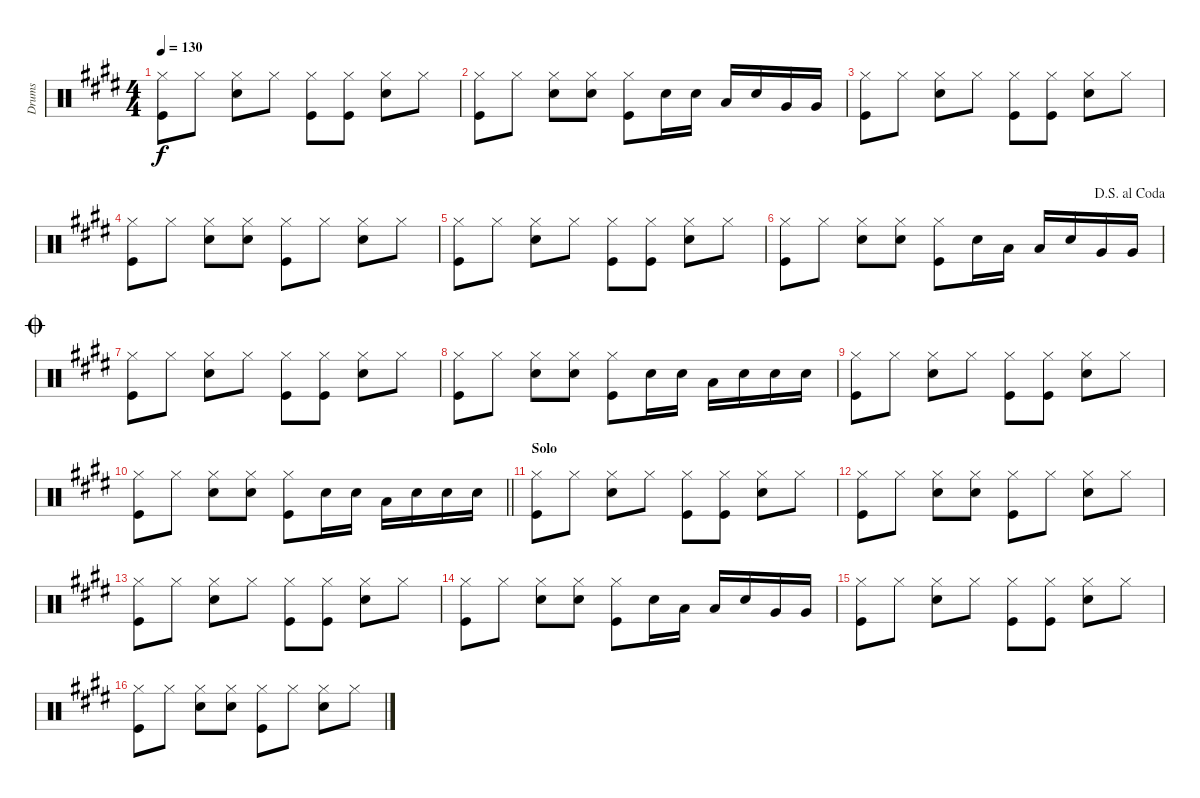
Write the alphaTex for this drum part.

\track ("Drums" "Drums") {instrument percussion}
\staff {score}
\articulation defaults
\ts (4 4)
\tempo 130
\clef neutral
\ks e
("Hi-Hat (closed)" "Kick (hit)").8{dy f} "Hi-Hat (closed)".8 ("Hi-Hat (closed)" "Snare (hit) 2").8 "Hi-Hat (closed)".8 ("Hi-Hat (closed)" "Kick (hit)").8 ("Hi-Hat (closed)" "Kick (hit)").8 ("Hi-Hat (closed)" "Snare (hit) 2").8 "Hi-Hat (closed)".8 |
("Hi-Hat (closed)" "Kick (hit)").8 "Hi-Hat (closed)".8 ("Hi-Hat (closed)" "Snare (hit) 2").8 ("Hi-Hat (closed)" "Snare (hit) 2").8 ("Hi-Hat (closed)" "Kick (hit)").8 "Snare (hit) 2".16 "Snare (hit) 2".16 "Low Tom (hit)".16 "Snare (hit) 2".16 "Very Low Tom (hit)".16 "Very Low Tom (hit)".16 |
("Hi-Hat (closed)" "Kick (hit)").8 "Hi-Hat (closed)".8 ("Hi-Hat (closed)" "Snare (hit) 2").8 "Hi-Hat (closed)".8 ("Hi-Hat (closed)" "Kick (hit)").8 ("Hi-Hat (closed)" "Kick (hit)").8 ("Hi-Hat (closed)" "Snare (hit) 2").8 "Hi-Hat (closed)".8 |
("Hi-Hat (closed)" "Kick (hit)").8 "Hi-Hat (closed)".8 ("Hi-Hat (closed)" "Snare (hit) 2").8 ("Hi-Hat (closed)" "Snare (hit) 2").8 ("Hi-Hat (closed)" "Kick (hit)").8 "Hi-Hat (closed)".8 ("Hi-Hat (closed)" "Snare (hit) 2").8 "Hi-Hat (closed)".8 |
("Hi-Hat (closed)" "Kick (hit)").8 "Hi-Hat (closed)".8 ("Hi-Hat (closed)" "Snare (hit) 2").8 "Hi-Hat (closed)".8 ("Hi-Hat (closed)" "Kick (hit)").8 ("Hi-Hat (closed)" "Kick (hit)").8 ("Hi-Hat (closed)" "Snare (hit) 2").8 "Hi-Hat (closed)".8 |
\jump dalsegnoalcoda
("Hi-Hat (closed)" "Kick (hit)").8 "Hi-Hat (closed)".8 ("Hi-Hat (closed)" "Snare (hit) 2").8 ("Hi-Hat (closed)" "Snare (hit) 2").8 ("Hi-Hat (closed)" "Kick (hit)").8 "Snare (hit) 2".16 "Low Tom (hit)".16 "Low Tom (hit)".16 "Snare (hit) 2".16 "Very Low Tom (hit)".16 "Very Low Tom (hit)".16 |
\jump coda
("Hi-Hat (closed)" "Kick (hit)").8 "Hi-Hat (closed)".8 ("Hi-Hat (closed)" "Snare (hit) 2").8 "Hi-Hat (closed)".8 ("Hi-Hat (closed)" "Kick (hit)").8 ("Hi-Hat (closed)" "Kick (hit)").8 ("Hi-Hat (closed)" "Snare (hit) 2").8 "Hi-Hat (closed)".8 |
("Hi-Hat (closed)" "Kick (hit)").8 "Hi-Hat (closed)".8 ("Hi-Hat (closed)" "Snare (hit) 2").8 ("Hi-Hat (closed)" "Snare (hit) 2").8 ("Hi-Hat (closed)" "Kick (hit)").8 "Snare (hit) 2".16 "Snare (hit) 2".16 "Low Tom (hit)".16 "Snare (hit) 2".16 "Snare (hit) 2".16 "Snare (hit) 2".16 |
("Hi-Hat (closed)" "Kick (hit)").8 "Hi-Hat (closed)".8 ("Hi-Hat (closed)" "Snare (hit) 2").8 "Hi-Hat (closed)".8 ("Hi-Hat (closed)" "Kick (hit)").8 ("Hi-Hat (closed)" "Kick (hit)").8 ("Hi-Hat (closed)" "Snare (hit) 2").8 "Hi-Hat (closed)".8 |
\barLineRight lightlight
("Hi-Hat (closed)" "Kick (hit)").8 "Hi-Hat (closed)".8 ("Hi-Hat (closed)" "Snare (hit) 2").8 ("Hi-Hat (closed)" "Snare (hit) 2").8 ("Hi-Hat (closed)" "Kick (hit)").8 "Snare (hit) 2".16 "Snare (hit) 2".16 "Low Tom (hit)".16 "Snare (hit) 2".16 "Snare (hit) 2".16 "Snare (hit) 2".16 |
\section ("" "Solo")
("Hi-Hat (closed)" "Kick (hit)").8 "Hi-Hat (closed)".8 ("Hi-Hat (closed)" "Snare (hit) 2").8 "Hi-Hat (closed)".8 ("Hi-Hat (closed)" "Kick (hit)").8 ("Hi-Hat (closed)" "Kick (hit)").8 ("Hi-Hat (closed)" "Snare (hit) 2").8 "Hi-Hat (closed)".8 |
("Hi-Hat (closed)" "Kick (hit)").8 "Hi-Hat (closed)".8 ("Hi-Hat (closed)" "Snare (hit) 2").8 ("Hi-Hat (closed)" "Snare (hit) 2").8 ("Hi-Hat (closed)" "Kick (hit)").8 "Hi-Hat (closed)".8 ("Hi-Hat (closed)" "Snare (hit) 2").8 "Hi-Hat (closed)".8 |
("Hi-Hat (closed)" "Kick (hit)").8 "Hi-Hat (closed)".8 ("Hi-Hat (closed)" "Snare (hit) 2").8 "Hi-Hat (closed)".8 ("Hi-Hat (closed)" "Kick (hit)").8 ("Hi-Hat (closed)" "Kick (hit)").8 ("Hi-Hat (closed)" "Snare (hit) 2").8 "Hi-Hat (closed)".8 |
("Hi-Hat (closed)" "Kick (hit)").8 "Hi-Hat (closed)".8 ("Hi-Hat (closed)" "Snare (hit) 2").8 ("Hi-Hat (closed)" "Snare (hit) 2").8 ("Hi-Hat (closed)" "Kick (hit)").8 "Snare (hit) 2".16 "Low Tom (hit)".16 "Low Tom (hit)".16 "Snare (hit) 2".16 "Very Low Tom (hit)".16 "Very Low Tom (hit)".16 |
("Hi-Hat (closed)" "Kick (hit)").8 "Hi-Hat (closed)".8 ("Hi-Hat (closed)" "Snare (hit) 2").8 "Hi-Hat (closed)".8 ("Hi-Hat (closed)" "Kick (hit)").8 ("Hi-Hat (closed)" "Kick (hit)").8 ("Hi-Hat (closed)" "Snare (hit) 2").8 "Hi-Hat (closed)".8 |
("Hi-Hat (closed)" "Kick (hit)").8 "Hi-Hat (closed)".8 ("Hi-Hat (closed)" "Snare (hit) 2").8 ("Hi-Hat (closed)" "Snare (hit) 2").8 ("Hi-Hat (closed)" "Kick (hit)").8 "Hi-Hat (closed)".8 ("Hi-Hat (closed)" "Snare (hit) 2").8 "Hi-Hat (closed)".8
